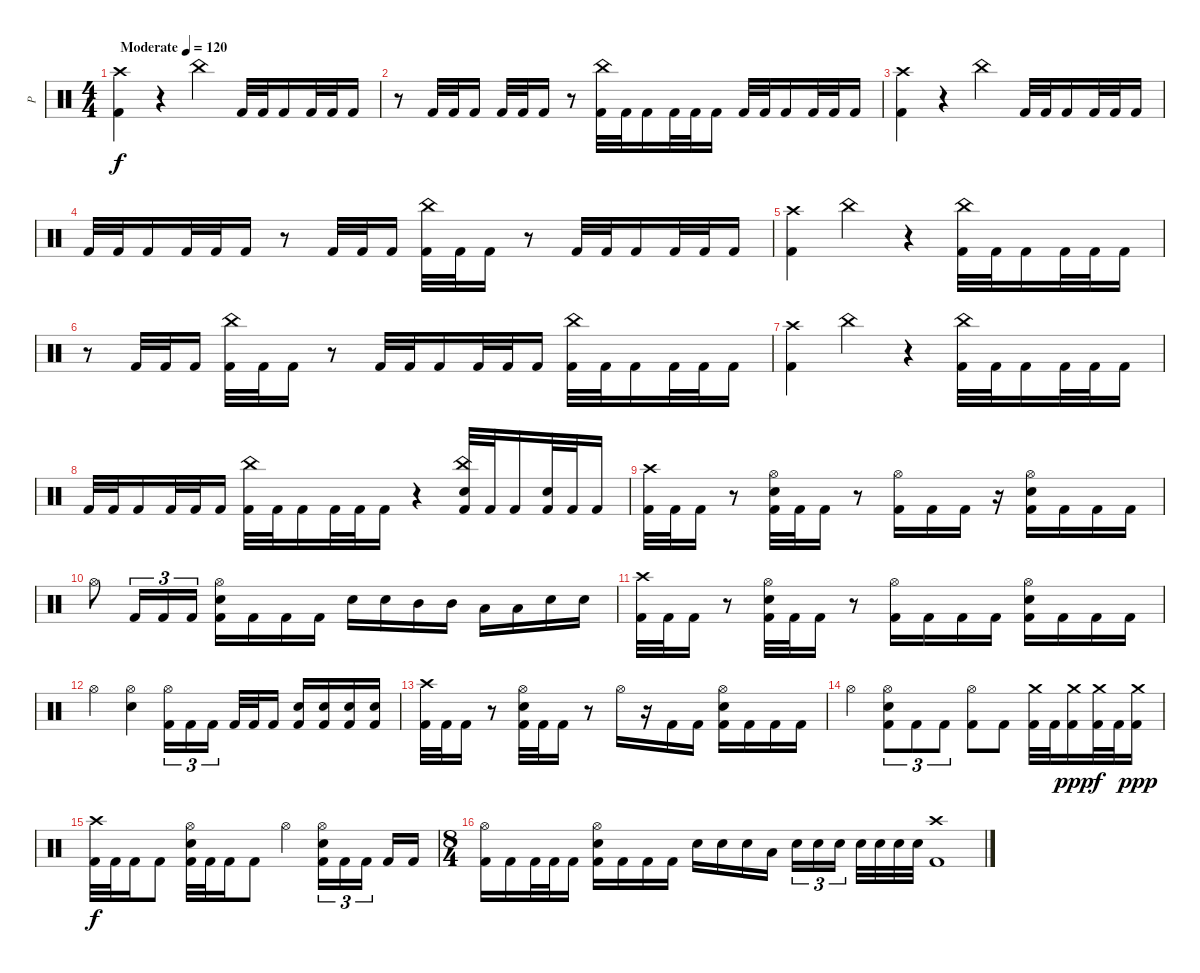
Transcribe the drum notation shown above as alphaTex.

\track ("P" "P") {instrument percussion}
\staff {score}
\articulation defaults
\ts (4 4)
\tempo (120 "Moderate")
\clef neutral
\ks c
("Crash high (hit)" "Kick (hit) 2").4{dy f} r.4 "China (hit)".4 "Kick (hit) 2".32 "Kick (hit) 2".32 "Kick (hit) 2".16 "Kick (hit) 2".32 "Kick (hit) 2".32 "Kick (hit) 2".16 |
r.8 "Kick (hit) 2".32 "Kick (hit) 2".32 "Kick (hit) 2".16 "Kick (hit) 2".32 "Kick (hit) 2".32 "Kick (hit) 2".16 r.8 ("China (hit)" "Kick (hit) 2").32 "Kick (hit) 2".32 "Kick (hit) 2".16 "Kick (hit) 2".32 "Kick (hit) 2".32 "Kick (hit) 2".16 "Kick (hit) 2".32 "Kick (hit) 2".32 "Kick (hit) 2".16 "Kick (hit) 2".32 "Kick (hit) 2".32 "Kick (hit) 2".16 |
("Crash high (hit)" "Kick (hit) 2").4 r.4 "China (hit)".4 "Kick (hit) 2".32 "Kick (hit) 2".32 "Kick (hit) 2".16 "Kick (hit) 2".32 "Kick (hit) 2".32 "Kick (hit) 2".16 |
"Kick (hit) 2".32 "Kick (hit) 2".32 "Kick (hit) 2".16 "Kick (hit) 2".32 "Kick (hit) 2".32 "Kick (hit) 2".16 r.8 "Kick (hit) 2".32 "Kick (hit) 2".32 "Kick (hit) 2".16 ("China (hit)" "Kick (hit) 2").32 "Kick (hit) 2".32 "Kick (hit) 2".16 r.8 "Kick (hit) 2".32 "Kick (hit) 2".32 "Kick (hit) 2".16 "Kick (hit) 2".32 "Kick (hit) 2".32 "Kick (hit) 2".16 |
("Crash high (hit)" "Kick (hit) 2").4 "China (hit)".4 r.4 ("China (hit)" "Kick (hit) 2").32 "Kick (hit) 2".32 "Kick (hit) 2".16 "Kick (hit) 2".32 "Kick (hit) 2".32 "Kick (hit) 2".16 |
r.8 "Kick (hit) 2".32 "Kick (hit) 2".32 "Kick (hit) 2".16 ("China (hit)" "Kick (hit) 2").32 "Kick (hit) 2".32 "Kick (hit) 2".16 r.8 "Kick (hit) 2".32 "Kick (hit) 2".32 "Kick (hit) 2".16 "Kick (hit) 2".32 "Kick (hit) 2".32 "Kick (hit) 2".16 ("China (hit)" "Kick (hit) 2").32 "Kick (hit) 2".32 "Kick (hit) 2".16 "Kick (hit) 2".32 "Kick (hit) 2".32 "Kick (hit) 2".16 |
("Crash high (hit)" "Kick (hit) 2").4 "China (hit)".4 r.4 ("China (hit)" "Kick (hit) 2").32 "Kick (hit) 2".32 "Kick (hit) 2".16 "Kick (hit) 2".32 "Kick (hit) 2".32 "Kick (hit) 2".16 |
"Kick (hit) 2".32 "Kick (hit) 2".32 "Kick (hit) 2".16 "Kick (hit) 2".32 "Kick (hit) 2".32 "Kick (hit) 2".16 ("China (hit)" "Kick (hit) 2").32 "Kick (hit) 2".32 "Kick (hit) 2".16 "Kick (hit) 2".32 "Kick (hit) 2".32 "Kick (hit) 2".16 r.4 ("China (hit)" "Electric Snare (hit)" "Kick (hit) 2").32 "Kick (hit) 2".32 "Kick (hit) 2".16 ("Electric Snare (hit)" "Kick (hit) 2").32 "Kick (hit) 2".32 "Kick (hit) 2".16 |
("Crash high (hit)" "Kick (hit) 2").32 "Kick (hit) 2".32 "Kick (hit) 2".16 r.8 ("Hi-Hat (open)" "Electric Snare (hit)" "Kick (hit) 2").32 "Kick (hit) 2".32 "Kick (hit) 2".16 r.8 ("Hi-Hat (open)" "Kick (hit) 2").16 "Kick (hit) 2".16 "Kick (hit) 2".16 r.16 ("Hi-Hat (open)" "Electric Snare (hit)" "Kick (hit) 2").16 "Kick (hit) 2".16 "Kick (hit) 2".16 "Kick (hit) 2".16 |
"Hi-Hat (open)".8 "Kick (hit) 2".16{tu (3 2)} "Kick (hit) 2".16{tu (3 2)} "Kick (hit) 2".16{tu (3 2)} ("Hi-Hat (open)" "Electric Snare (hit)" "Kick (hit) 2").16 "Kick (hit) 2".16 "Kick (hit) 2".16 "Kick (hit) 2".16 "Electric Snare (hit)".16 "Electric Snare (hit)".16 "Mid Tom (hit)".16 "Mid Tom (hit)".16 "Low Tom (hit)".16 "Low Tom (hit)".16 "Electric Snare (hit)".16 "Electric Snare (hit)".16 |
("Crash high (hit)" "Kick (hit) 2").32 "Kick (hit) 2".32 "Kick (hit) 2".16 r.8 ("Hi-Hat (open)" "Electric Snare (hit)" "Kick (hit) 2").32 "Kick (hit) 2".32 "Kick (hit) 2".16 r.8 ("Hi-Hat (open)" "Kick (hit) 2").16 "Kick (hit) 2".16 "Kick (hit) 2".16 "Kick (hit) 2".16 ("Hi-Hat (open)" "Electric Snare (hit)" "Kick (hit) 2").16 "Kick (hit) 2".16 "Kick (hit) 2".16 "Kick (hit) 2".16 |
"Hi-Hat (open)".4 ("Hi-Hat (open)" "Electric Snare (hit)").4 ("Hi-Hat (open)" "Kick (hit) 2").16{tu (3 2)} "Kick (hit) 2".16{tu (3 2)} "Kick (hit) 2".16{tu (3 2) beam splitsecondary} "Kick (hit) 2".32 "Kick (hit) 2".32 "Kick (hit) 2".16 ("Electric Snare (hit)" "Kick (hit) 2").16 ("Electric Snare (hit)" "Kick (hit) 2").16 ("Electric Snare (hit)" "Kick (hit) 2").16 ("Electric Snare (hit)" "Kick (hit) 2").16 |
("Crash high (hit)" "Kick (hit) 2").32 "Kick (hit) 2".32 "Kick (hit) 2".16 r.8 ("Hi-Hat (open)" "Electric Snare (hit)" "Kick (hit) 2").32 "Kick (hit) 2".32 "Kick (hit) 2".16 r.8 "Hi-Hat (open)".16 r.16 "Kick (hit) 2".16 "Kick (hit) 2".16 ("Hi-Hat (open)" "Electric Snare (hit)" "Kick (hit) 2").16 "Kick (hit) 2".16 "Kick (hit) 2".16 "Kick (hit) 2".16 |
"Hi-Hat (open)".4 ("Hi-Hat (open)" "Electric Snare (hit)" "Kick (hit) 2").8{tu (3 2)} "Kick (hit) 2".8{tu (3 2)} "Kick (hit) 2".8{tu (3 2)} ("Hi-Hat (open)" "Kick (hit) 2").8 "Kick (hit) 2".8 ("Crash medium (hit)" "Kick (hit) 2").32 "Kick (hit) 2".32 ("Crash medium (hit)" "Kick (hit) 2").16{dy ppp} ("Crash medium (hit)" "Kick (hit) 2").32{dy f} "Kick (hit) 2".32 ("Crash medium (hit)" "Kick (hit) 2").16{dy ppp} |
("Crash high (hit)" "Kick (hit) 2").32{dy f} "Kick (hit) 2".32 "Kick (hit) 2".16 "Kick (hit) 2".8 ("Hi-Hat (open)" "Electric Snare (hit)" "Kick (hit) 2").32 "Kick (hit) 2".32 "Kick (hit) 2".16 "Kick (hit) 2".8 "Hi-Hat (open)".4 ("Hi-Hat (open)" "Electric Snare (hit)" "Kick (hit) 2").16{tu (3 2)} "Kick (hit) 2".16{tu (3 2)} "Kick (hit) 2".16{tu (3 2) beam splitsecondary} "Kick (hit) 2".16 "Kick (hit) 2".16 |
\ts (8 4)
("Hi-Hat (open)" "Kick (hit) 2").16 "Kick (hit) 2".16 "Kick (hit) 2".32 "Kick (hit) 2".32 "Kick (hit) 2".16 ("Hi-Hat (open)" "Electric Snare (hit)" "Kick (hit) 2").16 "Kick (hit) 2".16 "Kick (hit) 2".16 "Kick (hit) 2".16 "Electric Snare (hit)".16 "Electric Snare (hit)".16 "Electric Snare (hit)".16 "Low Tom (hit)".16 "Electric Snare (hit)".16{tu (3 2)} "Electric Snare (hit)".16{tu (3 2)} "Electric Snare (hit)".16{tu (3 2) beam splitsecondary} "Electric Snare (hit)".32 "Electric Snare (hit)".32 "Electric Snare (hit)".32 "Electric Snare (hit)".32 ("Crash high (hit)" "Kick (hit) 2").1
